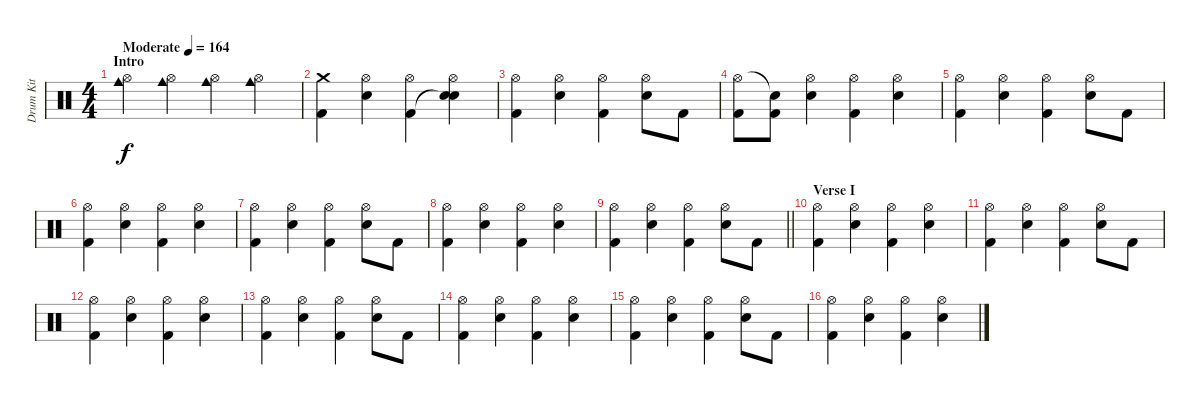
\track ("Drum Kit" "Drum Kit") {instrument percussion}
\staff {score}
\articulation defaults
\ts (4 4)
\section ("" "Intro")
\tempo (164 "Moderate")
\clef neutral
\ks c
("Hi-Hat (open)" "Cowbell medium (hit)").4{dy f} ("Hi-Hat (open)" "Cowbell medium (hit)").4 ("Hi-Hat (open)" "Cowbell medium (hit)").4 ("Hi-Hat (open)" "Cowbell medium (hit)").4 |
("Crash medium (hit)" "Kick (hit) 2").4 ("Hi-Hat (open)" "Electric Snare (hit)").4 ("Hi-Hat (open)" "Kick (hit) 2").4 ("Hi-Hat (open)" "Snare (hit)"{t} "Electric Snare (hit)").4 |
("Hi-Hat (open)" "Kick (hit) 2").4 ("Hi-Hat (open)" "Electric Snare (hit)").4 ("Hi-Hat (open)" "Kick (hit) 2").4 ("Hi-Hat (open)" "Electric Snare (hit)").8 "Kick (hit) 2".8 |
("Hi-Hat (open)" "Kick (hit) 2").8 ("Snare (hit)"{t} "Kick (hit) 2").8 ("Hi-Hat (open)" "Electric Snare (hit)").4 ("Hi-Hat (open)" "Kick (hit) 2").4 ("Hi-Hat (open)" "Electric Snare (hit)").4 |
("Hi-Hat (open)" "Kick (hit) 2").4 ("Hi-Hat (open)" "Electric Snare (hit)").4 ("Hi-Hat (open)" "Kick (hit) 2").4 ("Hi-Hat (open)" "Electric Snare (hit)").8 "Kick (hit) 2".8 |
("Hi-Hat (open)" "Kick (hit) 2").4 ("Hi-Hat (open)" "Electric Snare (hit)").4 ("Hi-Hat (open)" "Kick (hit) 2").4 ("Hi-Hat (open)" "Electric Snare (hit)").4 |
("Hi-Hat (open)" "Kick (hit) 2").4 ("Hi-Hat (open)" "Electric Snare (hit)").4 ("Hi-Hat (open)" "Kick (hit) 2").4 ("Hi-Hat (open)" "Electric Snare (hit)").8 "Kick (hit) 2".8 |
("Hi-Hat (open)" "Kick (hit) 2").4 ("Hi-Hat (open)" "Electric Snare (hit)").4 ("Hi-Hat (open)" "Kick (hit) 2").4 ("Hi-Hat (open)" "Electric Snare (hit)").4 |
\barLineRight lightlight
("Hi-Hat (open)" "Kick (hit) 2").4 ("Hi-Hat (open)" "Electric Snare (hit)").4 ("Hi-Hat (open)" "Kick (hit) 2").4 ("Hi-Hat (open)" "Electric Snare (hit)").8 "Kick (hit) 2".8 |
\section ("" "Verse I")
("Hi-Hat (open)" "Kick (hit) 2").4 ("Hi-Hat (open)" "Electric Snare (hit)").4 ("Hi-Hat (open)" "Kick (hit) 2").4 ("Hi-Hat (open)" "Electric Snare (hit)").4 |
("Hi-Hat (open)" "Kick (hit) 2").4 ("Hi-Hat (open)" "Electric Snare (hit)").4 ("Hi-Hat (open)" "Kick (hit) 2").4 ("Hi-Hat (open)" "Electric Snare (hit)").8 "Kick (hit) 2".8 |
("Hi-Hat (open)" "Kick (hit) 2").4 ("Hi-Hat (open)" "Electric Snare (hit)").4 ("Hi-Hat (open)" "Kick (hit) 2").4 ("Hi-Hat (open)" "Electric Snare (hit)").4 |
("Hi-Hat (open)" "Kick (hit) 2").4 ("Hi-Hat (open)" "Electric Snare (hit)").4 ("Hi-Hat (open)" "Kick (hit) 2").4 ("Hi-Hat (open)" "Electric Snare (hit)").8 "Kick (hit) 2".8 |
("Hi-Hat (open)" "Kick (hit) 2").4 ("Hi-Hat (open)" "Electric Snare (hit)").4 ("Hi-Hat (open)" "Kick (hit) 2").4 ("Hi-Hat (open)" "Electric Snare (hit)").4 |
("Hi-Hat (open)" "Kick (hit) 2").4 ("Hi-Hat (open)" "Electric Snare (hit)").4 ("Hi-Hat (open)" "Kick (hit) 2").4 ("Hi-Hat (open)" "Electric Snare (hit)").8 "Kick (hit) 2".8 |
("Hi-Hat (open)" "Kick (hit) 2").4 ("Hi-Hat (open)" "Electric Snare (hit)").4 ("Hi-Hat (open)" "Kick (hit) 2").4 ("Hi-Hat (open)" "Electric Snare (hit)").4
